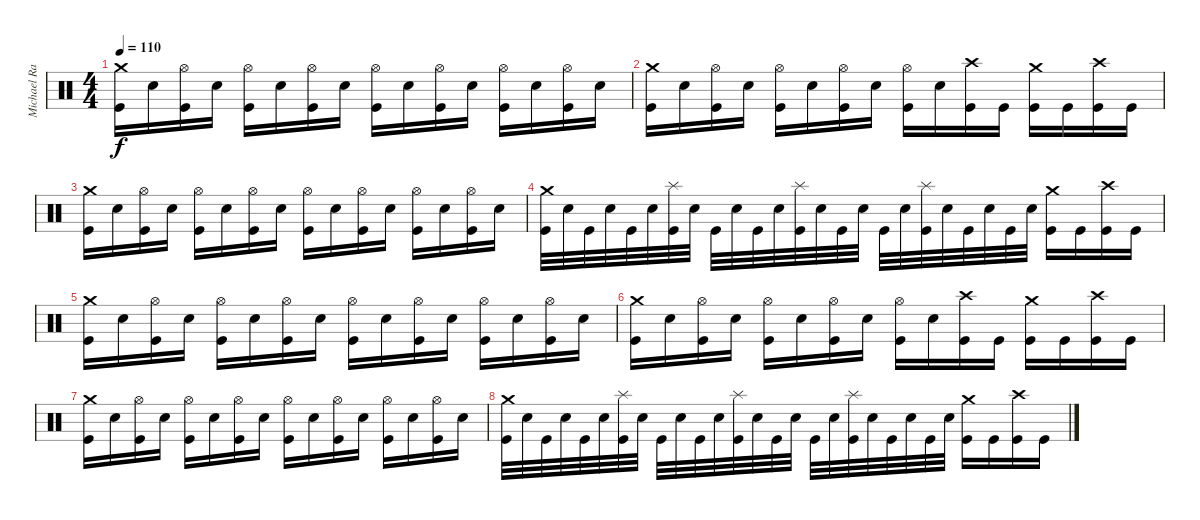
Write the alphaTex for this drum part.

\track ("Michael Ranne" "Michael Ra") {instrument percussion}
\staff {score}
\articulation defaults
\ts (4 4)
\tempo 110
\clef neutral
\ks c
("Crash medium (hit)" "Kick (hit)").16{dy f} "Snare (hit) 2".16 ("Hi-Hat (open)" "Kick (hit)").16 "Snare (hit) 2".16 ("Hi-Hat (open)" "Kick (hit)").16 "Snare (hit) 2".16 ("Hi-Hat (open)" "Kick (hit)").16 "Snare (hit) 2".16 ("Hi-Hat (open)" "Kick (hit)").16 "Snare (hit) 2".16 ("Hi-Hat (open)" "Kick (hit)").16 "Snare (hit) 2".16 ("Hi-Hat (open)" "Kick (hit)").16 "Snare (hit) 2".16 ("Hi-Hat (open)" "Kick (hit)").16 "Snare (hit) 2".16 |
("Crash medium (hit)" "Kick (hit)").16 "Snare (hit) 2".16 ("Hi-Hat (open)" "Kick (hit)").16 "Snare (hit) 2".16 ("Hi-Hat (open)" "Kick (hit)").16 "Snare (hit) 2".16 ("Hi-Hat (open)" "Kick (hit)").16 "Snare (hit) 2".16 ("Hi-Hat (open)" "Kick (hit)").16 "Snare (hit) 2".16 ("Crash high (hit)" "Kick (hit)").16 "Kick (hit)".16 ("Crash medium (hit)" "Kick (hit)").16 "Kick (hit)".16 ("Crash high (hit)" "Kick (hit)").16 "Kick (hit)".16 |
("Crash medium (hit)" "Kick (hit)").16 "Snare (hit) 2".16 ("Hi-Hat (open)" "Kick (hit)").16 "Snare (hit) 2".16 ("Hi-Hat (open)" "Kick (hit)").16 "Snare (hit) 2".16 ("Hi-Hat (open)" "Kick (hit)").16 "Snare (hit) 2".16 ("Hi-Hat (open)" "Kick (hit)").16 "Snare (hit) 2".16 ("Hi-Hat (open)" "Kick (hit)").16 "Snare (hit) 2".16 ("Hi-Hat (open)" "Kick (hit)").16 "Snare (hit) 2".16 ("Hi-Hat (open)" "Kick (hit)").16 "Snare (hit) 2".16 |
("Crash medium (hit)" "Kick (hit)").32 "Snare (hit) 2".32 "Kick (hit)".32 "Snare (hit) 2".32 "Kick (hit)".32 "Snare (hit) 2".32 ("Splash (hit)" "Kick (hit)").32 "Snare (hit) 2".32 "Kick (hit)".32 "Snare (hit) 2".32 "Kick (hit)".32 "Snare (hit) 2".32 ("Splash (hit)" "Kick (hit)").32 "Snare (hit) 2".32 "Kick (hit)".32 "Snare (hit) 2".32 "Kick (hit)".32 "Snare (hit) 2".32 ("Splash (hit)" "Kick (hit)").32 "Snare (hit) 2".32 "Kick (hit)".32 "Snare (hit) 2".32 "Kick (hit)".32 "Snare (hit) 2".32 ("Crash medium (hit)" "Kick (hit)").16 "Kick (hit)".16 ("Crash high (hit)" "Kick (hit)").16 "Kick (hit)".16 |
("Crash medium (hit)" "Kick (hit)").16 "Snare (hit) 2".16 ("Hi-Hat (open)" "Kick (hit)").16 "Snare (hit) 2".16 ("Hi-Hat (open)" "Kick (hit)").16 "Snare (hit) 2".16 ("Hi-Hat (open)" "Kick (hit)").16 "Snare (hit) 2".16 ("Hi-Hat (open)" "Kick (hit)").16 "Snare (hit) 2".16 ("Hi-Hat (open)" "Kick (hit)").16 "Snare (hit) 2".16 ("Hi-Hat (open)" "Kick (hit)").16 "Snare (hit) 2".16 ("Hi-Hat (open)" "Kick (hit)").16 "Snare (hit) 2".16 |
("Crash medium (hit)" "Kick (hit)").16 "Snare (hit) 2".16 ("Hi-Hat (open)" "Kick (hit)").16 "Snare (hit) 2".16 ("Hi-Hat (open)" "Kick (hit)").16 "Snare (hit) 2".16 ("Hi-Hat (open)" "Kick (hit)").16 "Snare (hit) 2".16 ("Hi-Hat (open)" "Kick (hit)").16 "Snare (hit) 2".16 ("Crash high (hit)" "Kick (hit)").16 "Kick (hit)".16 ("Crash medium (hit)" "Kick (hit)").16 "Kick (hit)".16 ("Crash high (hit)" "Kick (hit)").16 "Kick (hit)".16 |
("Crash medium (hit)" "Kick (hit)").16 "Snare (hit) 2".16 ("Hi-Hat (open)" "Kick (hit)").16 "Snare (hit) 2".16 ("Hi-Hat (open)" "Kick (hit)").16 "Snare (hit) 2".16 ("Hi-Hat (open)" "Kick (hit)").16 "Snare (hit) 2".16 ("Hi-Hat (open)" "Kick (hit)").16 "Snare (hit) 2".16 ("Hi-Hat (open)" "Kick (hit)").16 "Snare (hit) 2".16 ("Hi-Hat (open)" "Kick (hit)").16 "Snare (hit) 2".16 ("Hi-Hat (open)" "Kick (hit)").16 "Snare (hit) 2".16 |
("Crash medium (hit)" "Kick (hit)").32 "Snare (hit) 2".32 "Kick (hit)".32 "Snare (hit) 2".32 "Kick (hit)".32 "Snare (hit) 2".32 ("Splash (hit)" "Kick (hit)").32 "Snare (hit) 2".32 "Kick (hit)".32 "Snare (hit) 2".32 "Kick (hit)".32 "Snare (hit) 2".32 ("Splash (hit)" "Kick (hit)").32 "Snare (hit) 2".32 "Kick (hit)".32 "Snare (hit) 2".32 "Kick (hit)".32 "Snare (hit) 2".32 ("Splash (hit)" "Kick (hit)").32 "Snare (hit) 2".32 "Kick (hit)".32 "Snare (hit) 2".32 "Kick (hit)".32 "Snare (hit) 2".32 ("Crash medium (hit)" "Kick (hit)").16 "Kick (hit)".16 ("Crash high (hit)" "Kick (hit)").16 "Kick (hit)".16
